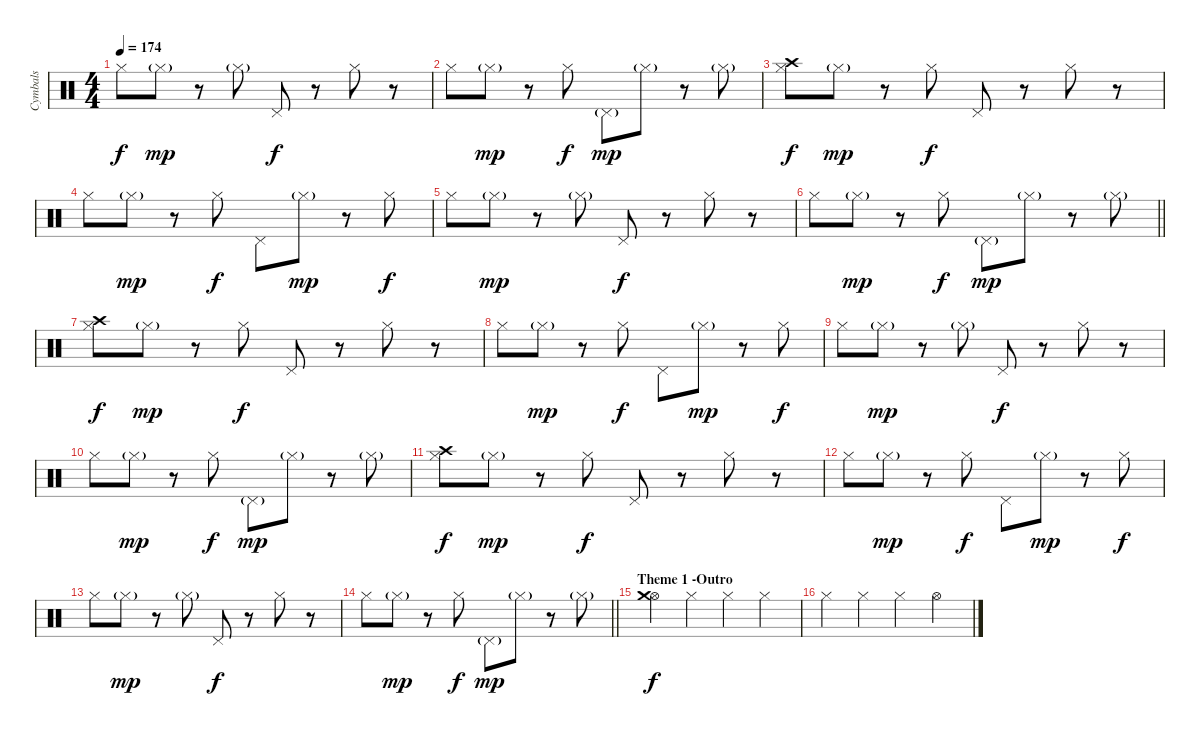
\track ("Cymbals" "Cymbals") {instrument percussion}
\staff {score}
\articulation defaults
\ts (4 4)
\tempo 174
\clef neutral
\ks c "Hi-Hat (closed)".8{dy f} "Hi-Hat (closed)"{g}.8{dy mp}
r.8 "Hi-Hat (closed)"{g}.8 "Pedal Hi-Hat (hit)".8{dy f} r.8 "Hi-Hat (closed)".8 r.8 |
"Hi-Hat (closed)".8 "Hi-Hat (closed)"{g}.8{dy mp} r.8 "Hi-Hat (closed)".8{dy f} "Pedal Hi-Hat (hit)"{g}.8{dy mp} "Hi-Hat (closed)"{g}.8 r.8 "Hi-Hat (closed)"{g}.8 |
("Crash high (hit)" "Hi-Hat (closed)").8{dy f} "Hi-Hat (closed)"{g}.8{dy mp} r.8 "Hi-Hat (closed)".8{dy f} "Pedal Hi-Hat (hit)".8 r.8 "Hi-Hat (closed)".8 r.8 |
"Hi-Hat (closed)".8 "Hi-Hat (closed)"{g}.8{dy mp} r.8 "Hi-Hat (closed)".8{dy f} "Pedal Hi-Hat (hit)".8 "Hi-Hat (closed)"{g}.8{dy mp} r.8 "Hi-Hat (closed)".8{dy f} |
"Hi-Hat (closed)".8 "Hi-Hat (closed)"{g}.8{dy mp} r.8 "Hi-Hat (closed)"{g}.8 "Pedal Hi-Hat (hit)".8{dy f} r.8 "Hi-Hat (closed)".8 r.8 |
\barLineRight lightlight "Hi-Hat (closed)".8 "Hi-Hat (closed)"{g}.8{dy mp}
r.8 "Hi-Hat (closed)".8{dy f} "Pedal Hi-Hat (hit)"{g}.8{dy mp} "Hi-Hat (closed)"{g}.8 r.8 "Hi-Hat (closed)"{g}.8 |
("Crash high (hit)" "Hi-Hat (closed)").8{dy f} "Hi-Hat (closed)"{g}.8{dy mp} r.8 "Hi-Hat (closed)".8{dy f} "Pedal Hi-Hat (hit)".8 r.8 "Hi-Hat (closed)".8 r.8 |
"Hi-Hat (closed)".8 "Hi-Hat (closed)"{g}.8{dy mp} r.8 "Hi-Hat (closed)".8{dy f} "Pedal Hi-Hat (hit)".8 "Hi-Hat (closed)"{g}.8{dy mp} r.8 "Hi-Hat (closed)".8{dy f} |
"Hi-Hat (closed)".8 "Hi-Hat (closed)"{g}.8{dy mp} r.8 "Hi-Hat (closed)"{g}.8 "Pedal Hi-Hat (hit)".8{dy f} r.8 "Hi-Hat (closed)".8 r.8 |
"Hi-Hat (closed)".8 "Hi-Hat (closed)"{g}.8{dy mp} r.8 "Hi-Hat (closed)".8{dy f} "Pedal Hi-Hat (hit)"{g}.8{dy mp} "Hi-Hat (closed)"{g}.8 r.8 "Hi-Hat (closed)"{g}.8 |
("Crash high (hit)" "Hi-Hat (closed)").8{dy f} "Hi-Hat (closed)"{g}.8{dy mp} r.8 "Hi-Hat (closed)".8{dy f} "Pedal Hi-Hat (hit)".8 r.8 "Hi-Hat (closed)".8 r.8 |
"Hi-Hat (closed)".8 "Hi-Hat (closed)"{g}.8{dy mp} r.8 "Hi-Hat (closed)".8{dy f} "Pedal Hi-Hat (hit)".8 "Hi-Hat (closed)"{g}.8{dy mp} r.8 "Hi-Hat (closed)".8{dy f} |
"Hi-Hat (closed)".8 "Hi-Hat (closed)"{g}.8{dy mp} r.8 "Hi-Hat (closed)"{g}.8 "Pedal Hi-Hat (hit)".8{dy f} r.8 "Hi-Hat (closed)".8 r.8 |
\barLineRight lightlight "Hi-Hat (closed)".8 "Hi-Hat (closed)"{g}.8{dy mp}
r.8 "Hi-Hat (closed)".8{dy f} "Pedal Hi-Hat (hit)"{g}.8{dy mp} "Hi-Hat (closed)"{g}.8 r.8 "Hi-Hat (closed)"{g}.8 |
\section ("" "Theme 1 -Outro")
("Hi-Hat (open)" "Crash medium (hit)").4{dy f} "Hi-Hat (closed)".4 "Hi-Hat (closed)".4 "Hi-Hat (closed)".4 |
"Hi-Hat (closed)".4 "Hi-Hat (closed)".4 "Hi-Hat (closed)".4 "Hi-Hat (open)".4
